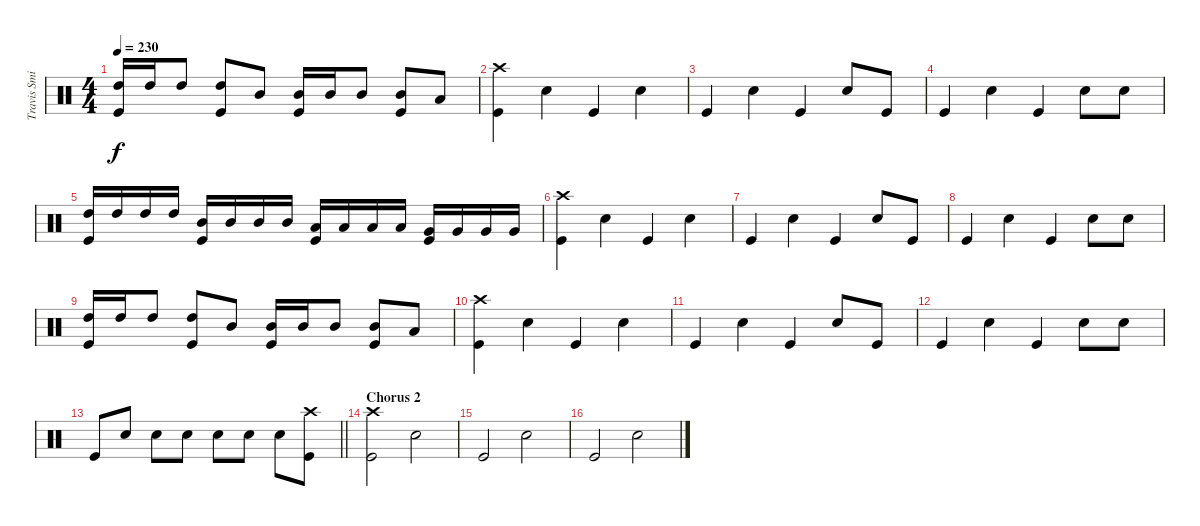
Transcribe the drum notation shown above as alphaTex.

\track ("Travis Smith" "Travis Smi") {instrument percussion}
\staff {score}
\articulation defaults
\ts (4 4)
\tempo 230
\clef neutral
\ks c
("High Tom (hit)" "Kick (hit)").16{dy f} "High Tom (hit)".16 "High Tom (hit)".8 ("High Tom (hit)" "Kick (hit)").8 "Mid Tom (hit)".8 ("Mid Tom (hit)" "Kick (hit)").16 "Mid Tom (hit)".16 "Mid Tom (hit)".8 ("Mid Tom (hit)" "Kick (hit)").8 "Low Tom (hit)".8 |
("Crash high (hit)" "Kick (hit)").4 "Snare (hit) 2".4 "Kick (hit)".4 "Snare (hit) 2".4 |
"Kick (hit)".4 "Snare (hit) 2".4 "Kick (hit)".4 "Snare (hit) 2".8 "Kick (hit)".8 |
"Kick (hit)".4 "Snare (hit) 2".4 "Kick (hit)".4 "Snare (hit) 2".8 "Snare (hit) 2".8 |
("High Tom (hit)" "Kick (hit)").16 "High Tom (hit)".16 "High Tom (hit)".16 "High Tom (hit)".16 ("Mid Tom (hit)" "Kick (hit)").16 "Mid Tom (hit)".16 "Mid Tom (hit)".16 "Mid Tom (hit)".16 ("Low Tom (hit)" "Kick (hit)").16 "Low Tom (hit)".16 "Low Tom (hit)".16 "Low Tom (hit)".16 ("Very Low Tom (hit)" "Kick (hit)").16 "Very Low Tom (hit)".16 "Very Low Tom (hit)".16 "Very Low Tom (hit)".16 |
("Crash high (hit)" "Kick (hit)").4 "Snare (hit) 2".4 "Kick (hit)".4 "Snare (hit) 2".4 |
"Kick (hit)".4 "Snare (hit) 2".4 "Kick (hit)".4 "Snare (hit) 2".8 "Kick (hit)".8 |
"Kick (hit)".4 "Snare (hit) 2".4 "Kick (hit)".4 "Snare (hit) 2".8 "Snare (hit) 2".8 |
("High Tom (hit)" "Kick (hit)").16 "High Tom (hit)".16 "High Tom (hit)".8 ("High Tom (hit)" "Kick (hit)").8 "Mid Tom (hit)".8 ("Mid Tom (hit)" "Kick (hit)").16 "Mid Tom (hit)".16 "Mid Tom (hit)".8 ("Mid Tom (hit)" "Kick (hit)").8 "Low Tom (hit)".8 |
("Crash high (hit)" "Kick (hit)").4 "Snare (hit) 2".4 "Kick (hit)".4 "Snare (hit) 2".4 |
"Kick (hit)".4 "Snare (hit) 2".4 "Kick (hit)".4 "Snare (hit) 2".8 "Kick (hit)".8 |
"Kick (hit)".4 "Snare (hit) 2".4 "Kick (hit)".4 "Snare (hit) 2".8 "Snare (hit) 2".8 |
\barLineRight lightlight "Kick (hit)".8 "Snare (hit) 2".8 "Snare (hit) 2".8 "Snare (hit) 2".8 "Snare (hit) 2".8 "Snare (hit) 2".8 "Snare (hit) 2".8
("Crash high (hit)" "Kick (hit)").8 |
\section ("" "Chorus 2")
("Crash high (hit)" "Kick (hit)").2 "Snare (hit) 2".2 |
"Kick (hit)".2 "Snare (hit) 2".2 |
"Kick (hit)".2 "Snare (hit) 2".2
